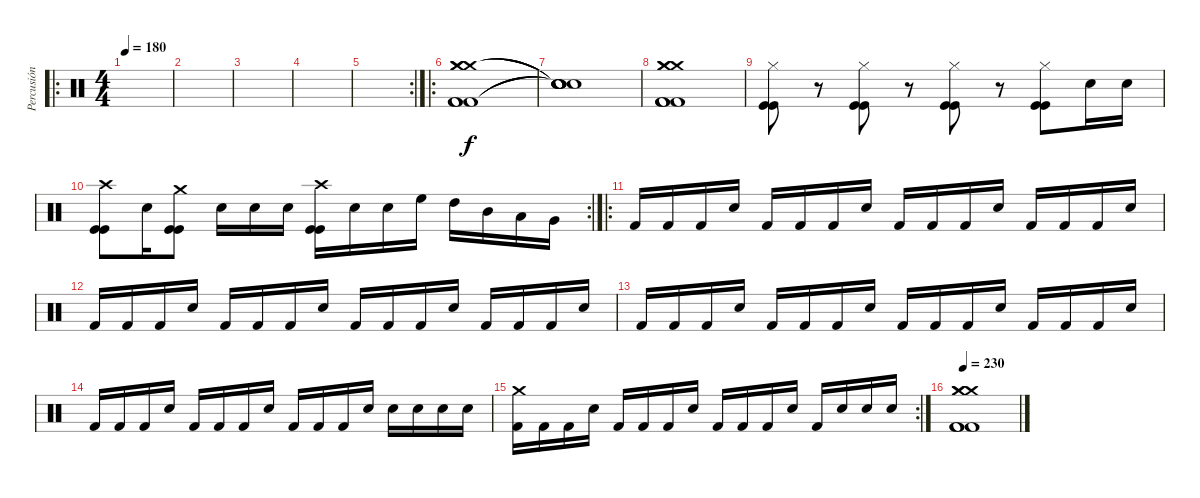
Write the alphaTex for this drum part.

\track ("Percusión" "Percusión") {instrument percussion}
\staff {score}
\articulation defaults
\ro
\ts (4 4)
\tempo 180
\clef neutral
\ks c
|
|
|
|
\rc 2
|
\ro
("Crash medium (hit)" "Crash medium (hit)" "Crash medium (hit)" "Kick (hit) 2" "Kick (hit) 2" "Kick (hit) 2").1 |
("Snare (hit)"{t} "Snare (hit)"{t} "Snare (hit)"{t} "Snare (hit)"{t} "Snare (hit)"{t} "Snare (hit)"{t}).1 |
("Crash medium (hit)" "Crash medium (hit)" "Crash medium (hit)" "Kick (hit) 2" "Kick (hit) 2" "Kick (hit) 2").1 |
("Kick (hit)" "Kick (hit)" "Hi-Hat (closed)").8 r.8 ("Kick (hit)" "Kick (hit)" "Hi-Hat (closed)").8 r.8 ("Kick (hit)" "Kick (hit)" "Hi-Hat (closed)").8 r.8 ("Kick (hit)" "Kick (hit)" "Hi-Hat (closed)").8 "Snare (hit) 2".16 "Snare (hit) 2".16 |
\rc 2
("Kick (hit)" "Kick (hit)" "Crash high (hit)").8 "Snare (hit) 2".16 ("Kick (hit)" "Kick (hit)" "Crash medium (hit)").8 "Snare (hit) 2".16 "Snare (hit) 2".16 "Snare (hit) 2".16 ("Kick (hit)" "Kick (hit)" "Crash high (hit)").16 "Snare (hit) 2".16 "Snare (hit) 2".16 "High Floor Tom (hit)".16 "High Tom (hit)".16 "Mid Tom (hit)".16 "Low Tom (hit)".16 "Very Low Tom (hit)".16 |
\ro "Kick (hit) 2".16 "Kick (hit) 2".16 "Kick (hit) 2".16 "Snare (hit) 2".16 "Kick (hit) 2".16 "Kick (hit) 2".16 "Kick (hit) 2".16 "Snare (hit) 2".16 "Kick (hit) 2".16 "Kick (hit) 2".16 "Kick (hit) 2".16 "Snare (hit) 2".16 "Kick (hit) 2".16 "Kick (hit) 2".16 "Kick (hit) 2".16 "Snare (hit) 2".16
|
"Kick (hit) 2".16 "Kick (hit) 2".16 "Kick (hit) 2".16 "Snare (hit) 2".16 "Kick (hit) 2".16 "Kick (hit) 2".16 "Kick (hit) 2".16 "Snare (hit) 2".16 "Kick (hit) 2".16 "Kick (hit) 2".16 "Kick (hit) 2".16 "Snare (hit) 2".16 "Kick (hit) 2".16 "Kick (hit) 2".16 "Kick (hit) 2".16 "Snare (hit) 2".16 |
"Kick (hit) 2".16 "Kick (hit) 2".16 "Kick (hit) 2".16 "Snare (hit) 2".16 "Kick (hit) 2".16 "Kick (hit) 2".16 "Kick (hit) 2".16 "Snare (hit) 2".16 "Kick (hit) 2".16 "Kick (hit) 2".16 "Kick (hit) 2".16 "Snare (hit) 2".16 "Kick (hit) 2".16 "Kick (hit) 2".16 "Kick (hit) 2".16 "Snare (hit) 2".16 |
"Kick (hit) 2".16 "Kick (hit) 2".16 "Kick (hit) 2".16 "Snare (hit) 2".16 "Kick (hit) 2".16 "Kick (hit) 2".16 "Kick (hit) 2".16 "Snare (hit) 2".16 "Kick (hit) 2".16 "Kick (hit) 2".16 "Kick (hit) 2".16 "Snare (hit) 2".16 "Snare (hit) 2".16 "Snare (hit) 2".16 "Snare (hit) 2".16 "Snare (hit) 2".16 |
\rc 2
("Crash medium (hit)" "Kick (hit) 2").16 "Kick (hit) 2".16 "Kick (hit) 2".16 "Snare (hit) 2".16 "Kick (hit) 2".16 "Kick (hit) 2".16 "Kick (hit) 2".16 "Snare (hit) 2".16 "Kick (hit) 2".16 "Kick (hit) 2".16 "Kick (hit) 2".16 "Snare (hit) 2".16 "Kick (hit) 2".16 "Snare (hit) 2".16 "Snare (hit) 2".16 "Snare (hit) 2".16 |
\tempo 230
("Crash medium (hit)" "Crash medium (hit)" "Crash medium (hit)" "Kick (hit) 2" "Kick (hit) 2" "Kick (hit) 2").1
